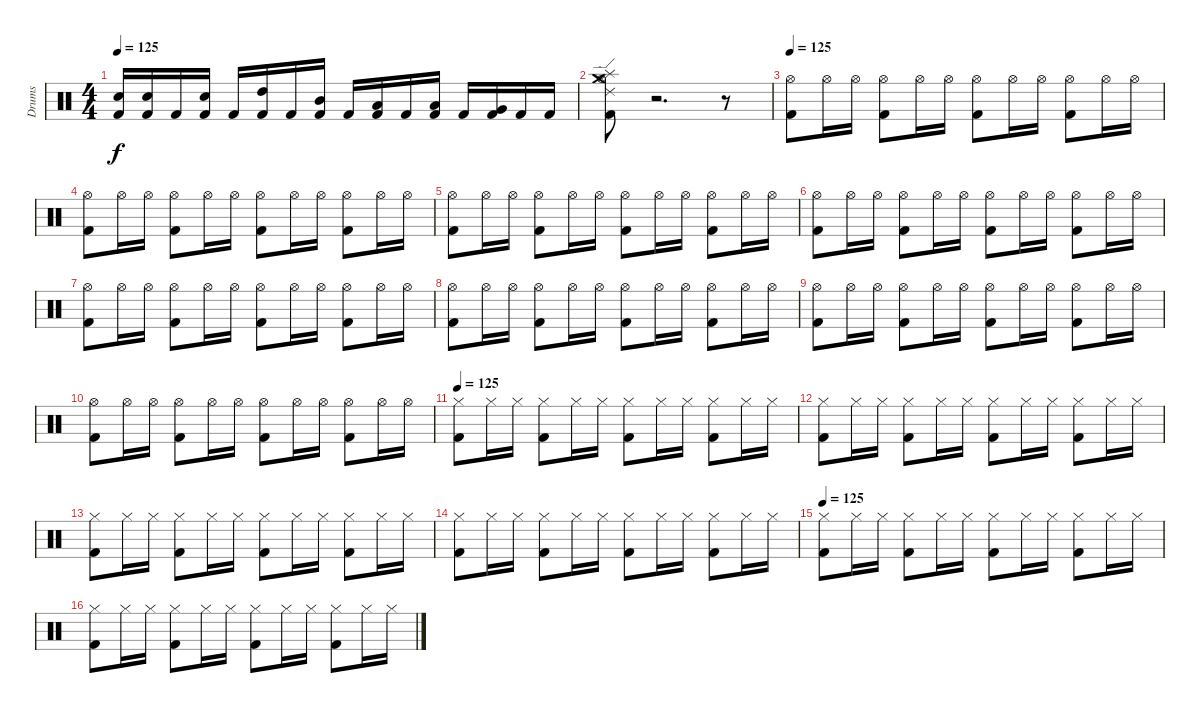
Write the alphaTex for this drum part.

\track ("Drums" "Drums") {instrument percussion}
\staff {score}
\articulation defaults
\ts (4 4)
\tempo 125
\clef neutral
\ks c
("Electric Snare (hit)" "Kick (hit) 2").16{dy f} ("Electric Snare (hit)" "Kick (hit) 2").16 "Kick (hit) 2".16 ("Electric Snare (hit)" "Kick (hit) 2").16 "Kick (hit) 2".16 ("High Tom (hit)" "Kick (hit) 2").16 "Kick (hit) 2".16 ("Mid Tom (hit)" "Kick (hit) 2").16 "Kick (hit) 2".16 ("Low Tom (hit)" "Kick (hit) 2").16 "Kick (hit) 2".16 ("Low Tom (hit)" "Kick (hit) 2").16 "Kick (hit) 2".16 ("Very Low Tom (hit)" "Kick (hit) 2").16 "Kick (hit) 2".16 "Kick (hit) 2".16 |
("Hi-Hat (open)" "Ride (edge) 2" "Crash medium (hit)" "Splash (hit)" "Kick (hit) 2").8 r.2{d} r.8 |
\tempo 125
("Hi-Hat (open)" "Kick (hit) 2").8 "Hi-Hat (open)".16 "Hi-Hat (open)".16 ("Hi-Hat (open)" "Kick (hit) 2").8 "Hi-Hat (open)".16 "Hi-Hat (open)".16 ("Hi-Hat (open)" "Kick (hit) 2").8 "Hi-Hat (open)".16 "Hi-Hat (open)".16 ("Hi-Hat (open)" "Kick (hit) 2").8 "Hi-Hat (open)".16 "Hi-Hat (open)".16 |
("Hi-Hat (open)" "Kick (hit) 2").8 "Hi-Hat (open)".16 "Hi-Hat (open)".16 ("Hi-Hat (open)" "Kick (hit) 2").8 "Hi-Hat (open)".16 "Hi-Hat (open)".16 ("Hi-Hat (open)" "Kick (hit) 2").8 "Hi-Hat (open)".16 "Hi-Hat (open)".16 ("Hi-Hat (open)" "Kick (hit) 2").8 "Hi-Hat (open)".16 "Hi-Hat (open)".16 |
("Hi-Hat (open)" "Kick (hit) 2").8 "Hi-Hat (open)".16 "Hi-Hat (open)".16 ("Hi-Hat (open)" "Kick (hit) 2").8 "Hi-Hat (open)".16 "Hi-Hat (open)".16 ("Hi-Hat (open)" "Kick (hit) 2").8 "Hi-Hat (open)".16 "Hi-Hat (open)".16 ("Hi-Hat (open)" "Kick (hit) 2").8 "Hi-Hat (open)".16 "Hi-Hat (open)".16 |
("Hi-Hat (open)" "Kick (hit) 2").8 "Hi-Hat (open)".16 "Hi-Hat (open)".16 ("Hi-Hat (open)" "Kick (hit) 2").8 "Hi-Hat (open)".16 "Hi-Hat (open)".16 ("Hi-Hat (open)" "Kick (hit) 2").8 "Hi-Hat (open)".16 "Hi-Hat (open)".16 ("Hi-Hat (open)" "Kick (hit) 2").8 "Hi-Hat (open)".16 "Hi-Hat (open)".16 |
("Hi-Hat (open)" "Kick (hit) 2").8 "Hi-Hat (open)".16 "Hi-Hat (open)".16 ("Hi-Hat (open)" "Kick (hit) 2").8 "Hi-Hat (open)".16 "Hi-Hat (open)".16 ("Hi-Hat (open)" "Kick (hit) 2").8 "Hi-Hat (open)".16 "Hi-Hat (open)".16 ("Hi-Hat (open)" "Kick (hit) 2").8 "Hi-Hat (open)".16 "Hi-Hat (open)".16 |
("Hi-Hat (open)" "Kick (hit) 2").8 "Hi-Hat (open)".16 "Hi-Hat (open)".16 ("Hi-Hat (open)" "Kick (hit) 2").8 "Hi-Hat (open)".16 "Hi-Hat (open)".16 ("Hi-Hat (open)" "Kick (hit) 2").8 "Hi-Hat (open)".16 "Hi-Hat (open)".16 ("Hi-Hat (open)" "Kick (hit) 2").8 "Hi-Hat (open)".16 "Hi-Hat (open)".16 |
("Hi-Hat (open)" "Kick (hit) 2").8 "Hi-Hat (open)".16 "Hi-Hat (open)".16 ("Hi-Hat (open)" "Kick (hit) 2").8 "Hi-Hat (open)".16 "Hi-Hat (open)".16 ("Hi-Hat (open)" "Kick (hit) 2").8 "Hi-Hat (open)".16 "Hi-Hat (open)".16 ("Hi-Hat (open)" "Kick (hit) 2").8 "Hi-Hat (open)".16 "Hi-Hat (open)".16 |
("Hi-Hat (open)" "Kick (hit) 2").8 "Hi-Hat (open)".16 "Hi-Hat (open)".16 ("Hi-Hat (open)" "Kick (hit) 2").8 "Hi-Hat (open)".16 "Hi-Hat (open)".16 ("Hi-Hat (open)" "Kick (hit) 2").8 "Hi-Hat (open)".16 "Hi-Hat (open)".16 ("Hi-Hat (open)" "Kick (hit) 2").8 "Hi-Hat (open)".16 "Hi-Hat (open)".16 |
\tempo 125
("Hi-Hat (closed)" "Kick (hit) 2").8 "Hi-Hat (closed)".16 "Hi-Hat (closed)".16 ("Hi-Hat (closed)" "Kick (hit) 2").8 "Hi-Hat (closed)".16 "Hi-Hat (closed)".16 ("Hi-Hat (closed)" "Kick (hit) 2").8 "Hi-Hat (closed)".16 "Hi-Hat (closed)".16 ("Hi-Hat (closed)" "Kick (hit) 2").8 "Hi-Hat (closed)".16 "Hi-Hat (closed)".16 |
("Hi-Hat (closed)" "Kick (hit) 2").8 "Hi-Hat (closed)".16 "Hi-Hat (closed)".16 ("Hi-Hat (closed)" "Kick (hit) 2").8 "Hi-Hat (closed)".16 "Hi-Hat (closed)".16 ("Hi-Hat (closed)" "Kick (hit) 2").8 "Hi-Hat (closed)".16 "Hi-Hat (closed)".16 ("Hi-Hat (closed)" "Kick (hit) 2").8 "Hi-Hat (closed)".16 "Hi-Hat (closed)".16 |
("Hi-Hat (closed)" "Kick (hit) 2").8 "Hi-Hat (closed)".16 "Hi-Hat (closed)".16 ("Hi-Hat (closed)" "Kick (hit) 2").8 "Hi-Hat (closed)".16 "Hi-Hat (closed)".16 ("Hi-Hat (closed)" "Kick (hit) 2").8 "Hi-Hat (closed)".16 "Hi-Hat (closed)".16 ("Hi-Hat (closed)" "Kick (hit) 2").8 "Hi-Hat (closed)".16 "Hi-Hat (closed)".16 |
("Hi-Hat (closed)" "Kick (hit) 2").8 "Hi-Hat (closed)".16 "Hi-Hat (closed)".16 ("Hi-Hat (closed)" "Kick (hit) 2").8 "Hi-Hat (closed)".16 "Hi-Hat (closed)".16 ("Hi-Hat (closed)" "Kick (hit) 2").8 "Hi-Hat (closed)".16 "Hi-Hat (closed)".16 ("Hi-Hat (closed)" "Kick (hit) 2").8 "Hi-Hat (closed)".16 "Hi-Hat (closed)".16 |
\tempo 125
("Hi-Hat (closed)" "Kick (hit) 2").8 "Hi-Hat (closed)".16 "Hi-Hat (closed)".16 ("Hi-Hat (closed)" "Kick (hit) 2").8 "Hi-Hat (closed)".16 "Hi-Hat (closed)".16 ("Hi-Hat (closed)" "Kick (hit) 2").8 "Hi-Hat (closed)".16 "Hi-Hat (closed)".16 ("Hi-Hat (closed)" "Kick (hit) 2").8 "Hi-Hat (closed)".16 "Hi-Hat (closed)".16 |
("Hi-Hat (closed)" "Kick (hit) 2").8 "Hi-Hat (closed)".16 "Hi-Hat (closed)".16 ("Hi-Hat (closed)" "Kick (hit) 2").8 "Hi-Hat (closed)".16 "Hi-Hat (closed)".16 ("Hi-Hat (closed)" "Kick (hit) 2").8 "Hi-Hat (closed)".16 "Hi-Hat (closed)".16 ("Hi-Hat (closed)" "Kick (hit) 2").8 "Hi-Hat (closed)".16 "Hi-Hat (closed)".16
